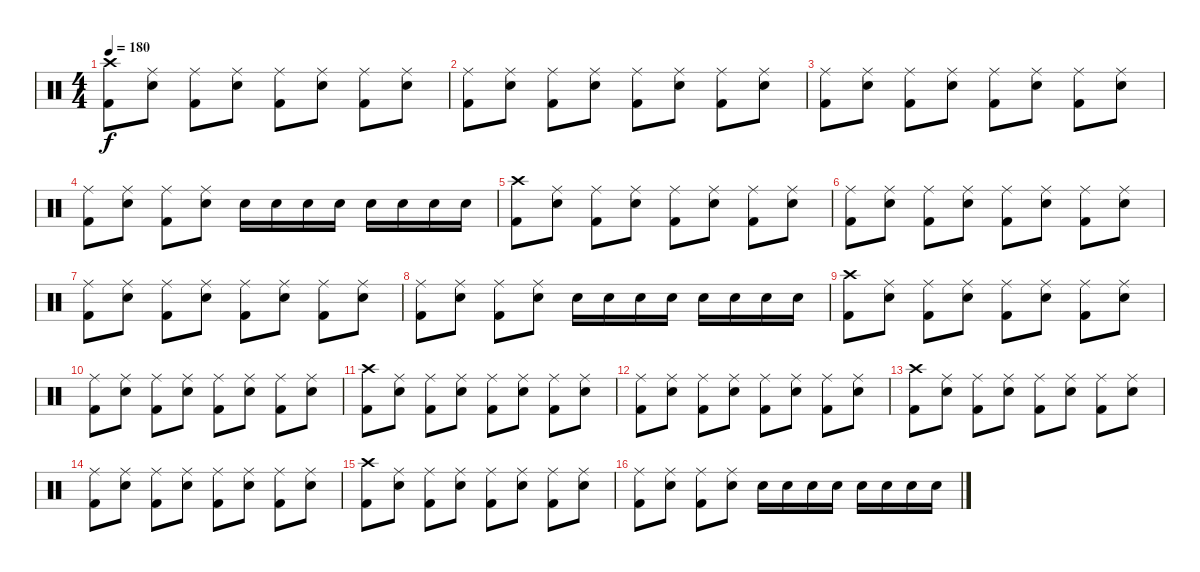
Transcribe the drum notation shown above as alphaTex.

\track "" {instrument percussion}
\staff {score}
\articulation defaults
\ts (4 4)
\tempo 180
\clef neutral
\ks c
("Kick (hit) 2" "Crash high (hit)").8{dy f} ("Ride (middle)" "Snare (hit) 2").8 ("Ride (middle)" "Kick (hit) 2").8 ("Snare (hit) 2" "Ride (middle)").8 ("Kick (hit) 2" "Ride (middle)").8 ("Snare (hit) 2" "Ride (middle)").8 ("Ride (middle)" "Kick (hit) 2").8 ("Ride (middle)" "Snare (hit) 2").8 |
("Ride (middle)" "Kick (hit) 2").8 ("Ride (middle)" "Snare (hit) 2").8 ("Ride (middle)" "Kick (hit) 2").8 ("Ride (middle)" "Snare (hit) 2").8 ("Ride (middle)" "Kick (hit) 2").8 ("Snare (hit) 2" "Ride (middle)").8 ("Kick (hit) 2" "Ride (middle)").8 ("Ride (middle)" "Snare (hit) 2").8 |
("Ride (middle)" "Kick (hit) 2").8 ("Ride (middle)" "Snare (hit) 2").8 ("Kick (hit) 2" "Ride (middle)").8 ("Ride (middle)" "Snare (hit) 2").8 ("Ride (middle)" "Kick (hit) 2").8 ("Snare (hit) 2" "Ride (middle)").8 ("Ride (middle)" "Kick (hit) 2").8 ("Ride (middle)" "Snare (hit) 2").8 |
("Ride (middle)" "Kick (hit) 2").8 ("Ride (middle)" "Snare (hit) 2").8 ("Ride (middle)" "Kick (hit) 2").8 ("Snare (hit) 2" "Ride (middle)").8 "Snare (hit) 2".16 "Snare (hit) 2".16 "Snare (hit) 2".16 "Snare (hit) 2".16 "Snare (hit) 2".16 "Snare (hit) 2".16 "Snare (hit) 2".16 "Snare (hit) 2".16 |
("Crash high (hit)" "Kick (hit) 2").8 ("Snare (hit) 2" "Ride (middle)").8 ("Ride (middle)" "Kick (hit) 2").8 ("Snare (hit) 2" "Ride (middle)").8 ("Kick (hit) 2" "Ride (middle)").8 ("Snare (hit) 2" "Ride (middle)").8 ("Ride (middle)" "Kick (hit) 2").8 ("Snare (hit) 2" "Ride (middle)").8 |
("Kick (hit) 2" "Ride (middle)").8 ("Ride (middle)" "Snare (hit) 2").8 ("Kick (hit) 2" "Ride (middle)").8 ("Ride (middle)" "Snare (hit) 2").8 ("Kick (hit) 2" "Ride (middle)").8 ("Snare (hit) 2" "Ride (middle)").8 ("Ride (middle)" "Kick (hit) 2").8 ("Snare (hit) 2" "Ride (middle)").8 |
("Kick (hit) 2" "Ride (middle)").8 ("Ride (middle)" "Snare (hit) 2").8 ("Ride (middle)" "Kick (hit) 2").8 ("Snare (hit) 2" "Ride (middle)").8 ("Ride (middle)" "Kick (hit) 2").8 ("Ride (middle)" "Snare (hit) 2").8 ("Ride (middle)" "Kick (hit) 2").8 ("Ride (middle)" "Snare (hit) 2").8 |
("Ride (middle)" "Kick (hit) 2").8 ("Ride (middle)" "Snare (hit) 2").8 ("Kick (hit) 2" "Ride (middle)").8 ("Ride (middle)" "Snare (hit) 2").8 "Snare (hit) 2".16 "Snare (hit) 2".16 "Snare (hit) 2".16 "Snare (hit) 2".16 "Snare (hit) 2".16 "Snare (hit) 2".16 "Snare (hit) 2".16 "Snare (hit) 2".16 |
("Kick (hit) 2" "Crash high (hit)").8 ("Snare (hit) 2" "Ride (middle)").8 ("Kick (hit) 2" "Ride (middle)").8 ("Snare (hit) 2" "Ride (middle)").8 ("Ride (middle)" "Kick (hit) 2").8 ("Ride (middle)" "Snare (hit) 2").8 ("Ride (middle)" "Kick (hit) 2").8 ("Snare (hit) 2" "Ride (middle)").8 |
("Ride (middle)" "Kick (hit) 2").8 ("Ride (middle)" "Snare (hit) 2").8 ("Ride (middle)" "Kick (hit) 2").8 ("Ride (middle)" "Snare (hit) 2").8 ("Ride (middle)" "Kick (hit) 2").8 ("Snare (hit) 2" "Ride (middle)").8 ("Ride (middle)" "Kick (hit) 2").8 ("Ride (middle)" "Snare (hit) 2").8 |
("Kick (hit) 2" "Crash high (hit)").8 ("Ride (middle)" "Snare (hit) 2").8 ("Ride (middle)" "Kick (hit) 2").8 ("Snare (hit) 2" "Ride (middle)").8 ("Kick (hit) 2" "Ride (middle)").8 ("Snare (hit) 2" "Ride (middle)").8 ("Kick (hit) 2" "Ride (middle)").8 ("Ride (middle)" "Snare (hit) 2").8 |
("Ride (middle)" "Kick (hit) 2").8 ("Ride (middle)" "Snare (hit) 2").8 ("Ride (middle)" "Kick (hit) 2").8 ("Ride (middle)" "Snare (hit) 2").8 ("Kick (hit) 2" "Ride (middle)").8 ("Snare (hit) 2" "Ride (middle)").8 ("Ride (middle)" "Kick (hit) 2").8 ("Snare (hit) 2" "Ride (middle)").8 |
("Kick (hit) 2" "Crash high (hit)").8 ("Snare (hit) 2" "Ride (middle)").8 ("Ride (middle)" "Kick (hit) 2").8 ("Ride (middle)" "Snare (hit) 2").8 ("Ride (middle)" "Kick (hit) 2").8 ("Snare (hit) 2" "Ride (middle)").8 ("Ride (middle)" "Kick (hit) 2").8 ("Ride (middle)" "Snare (hit) 2").8 |
("Kick (hit) 2" "Ride (middle)").8 ("Snare (hit) 2" "Ride (middle)").8 ("Ride (middle)" "Kick (hit) 2").8 ("Snare (hit) 2" "Ride (middle)").8 ("Ride (middle)" "Kick (hit) 2").8 ("Ride (middle)" "Snare (hit) 2").8 ("Ride (middle)" "Kick (hit) 2").8 ("Snare (hit) 2" "Ride (middle)").8 |
("Crash high (hit)" "Kick (hit) 2").8 ("Snare (hit) 2" "Ride (middle)").8 ("Kick (hit) 2" "Ride (middle)").8 ("Snare (hit) 2" "Ride (middle)").8 ("Ride (middle)" "Kick (hit) 2").8 ("Snare (hit) 2" "Ride (middle)").8 ("Ride (middle)" "Kick (hit) 2").8 ("Snare (hit) 2" "Ride (middle)").8 |
("Kick (hit) 2" "Ride (middle)").8 ("Ride (middle)" "Snare (hit) 2").8 ("Kick (hit) 2" "Ride (middle)").8 ("Ride (middle)" "Snare (hit) 2").8 "Snare (hit) 2".16 "Snare (hit) 2".16 "Snare (hit) 2".16 "Snare (hit) 2".16 "Snare (hit) 2".16 "Snare (hit) 2".16 "Snare (hit) 2".16 "Snare (hit) 2".16
